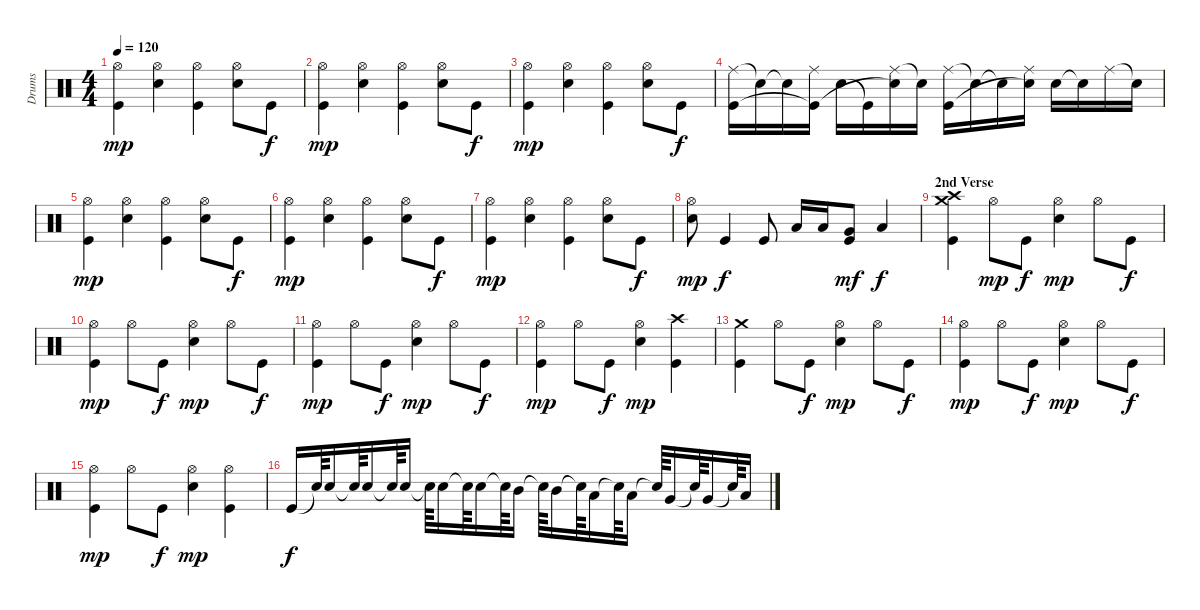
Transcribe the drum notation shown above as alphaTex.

\track ("Drums" "Drums") {instrument percussion}
\staff {score}
\articulation defaults
\ts (4 4)
\tempo 120
\clef neutral
\ks c
("Hi-Hat (open)" "Kick (hit)").4{dy mp} ("Hi-Hat (open)" "Electric Snare (hit)").4 ("Hi-Hat (open)" "Kick (hit)").4 ("Hi-Hat (open)" "Electric Snare (hit)").8 "Kick (hit)".8{dy f} |
("Hi-Hat (open)" "Kick (hit)").4{dy mp} ("Hi-Hat (open)" "Electric Snare (hit)").4 ("Hi-Hat (open)" "Kick (hit)").4 ("Hi-Hat (open)" "Electric Snare (hit)").8 "Kick (hit)".8{dy f} |
("Hi-Hat (open)" "Kick (hit)").4{dy mp} ("Hi-Hat (open)" "Electric Snare (hit)").4 ("Hi-Hat (open)" "Kick (hit)").4 ("Hi-Hat (open)" "Electric Snare (hit)").8 "Kick (hit)".8{dy f} |
("Ride (middle)" "Kick (hit)").16 "Snare (hit)"{t}.16 "Electric Snare (hit)"{t}.16 ("Ride (middle)" "Kick (hit)"{t}).16 "Electric Snare (hit)".16 "Kick (hit)"{t}.16 ("Ride (middle)" "Snare (hit)"{t}).16 "Snare (hit)"{t}.16 ("Ride (middle)" "Kick (hit)").16 "Snare (hit)"{t}.16 "Snare (hit)"{t}.16 ("Ride (middle)" "Snare (hit)"{t}).16 "Electric Snare (hit)".16 "Snare (hit)"{t}.16 "Ride (middle)".16 "Snare (hit)"{t}.16 |
("Hi-Hat (open)" "Kick (hit)").4{dy mp} ("Hi-Hat (open)" "Electric Snare (hit)").4 ("Hi-Hat (open)" "Kick (hit)").4 ("Hi-Hat (open)" "Electric Snare (hit)").8 "Kick (hit)".8{dy f} |
("Hi-Hat (open)" "Kick (hit)").4{dy mp} ("Hi-Hat (open)" "Electric Snare (hit)").4 ("Hi-Hat (open)" "Kick (hit)").4 ("Hi-Hat (open)" "Electric Snare (hit)").8 "Kick (hit)".8{dy f} |
("Hi-Hat (open)" "Kick (hit)").4{dy mp} ("Hi-Hat (open)" "Electric Snare (hit)").4 ("Hi-Hat (open)" "Kick (hit)").4 ("Hi-Hat (open)" "Electric Snare (hit)").8 "Kick (hit)".8{dy f} |
("Hi-Hat (open)" "Electric Snare (hit)").8{dy mp} "Kick (hit)".4{dy f} "Kick (hit)".8 "Low Tom (hit)".16 "Low Tom (hit)".16 ("Very Low Tom (hit)" "Kick (hit)").8{dy mf} "Low Floor Tom (hit)".4{dy f} |
\section ("" "2nd Verse")
("Crash high (hit)" "Crash medium (hit)" "Kick (hit)").4 "Hi-Hat (open)".8{dy mp} "Kick (hit)".8{dy f} ("Hi-Hat (open)" "Electric Snare (hit)").4{dy mp} "Hi-Hat (open)".8 "Kick (hit)".8{dy f} |
("Hi-Hat (open)" "Kick (hit)").4{dy mp} "Hi-Hat (open)".8 "Kick (hit)".8{dy f} ("Hi-Hat (open)" "Electric Snare (hit)").4{dy mp} "Hi-Hat (open)".8 "Kick (hit)".8{dy f} |
("Hi-Hat (open)" "Kick (hit)").4{dy mp} "Hi-Hat (open)".8 "Kick (hit)".8{dy f} ("Hi-Hat (open)" "Electric Snare (hit)").4{dy mp} "Hi-Hat (open)".8 "Kick (hit)".8{dy f} |
("Hi-Hat (open)" "Kick (hit)").4{dy mp} "Hi-Hat (open)".8 "Kick (hit)".8{dy f} ("Hi-Hat (open)" "Electric Snare (hit)").4{dy mp} ("Crash high (hit)" "Kick (hit)").4 |
("Crash medium (hit)" "Kick (hit)").4 "Hi-Hat (open)".8 "Kick (hit)".8{dy f} ("Hi-Hat (open)" "Electric Snare (hit)").4{dy mp} "Hi-Hat (open)".8 "Kick (hit)".8{dy f} |
("Hi-Hat (open)" "Kick (hit)").4{dy mp} "Hi-Hat (open)".8 "Kick (hit)".8{dy f} ("Hi-Hat (open)" "Electric Snare (hit)").4{dy mp} "Hi-Hat (open)".8 "Kick (hit)".8{dy f} |
("Hi-Hat (open)" "Kick (hit)").4{dy mp} "Hi-Hat (open)".8 "Kick (hit)".8{dy f} ("Hi-Hat (open)" "Electric Snare (hit)").4{dy mp} ("Hi-Hat (open)" "Kick (hit)").4 |
"Kick (hit)".16{dy f} "Snare (hit)"{t}.64 "Electric Snare (hit)".16 "Snare (hit)"{t}.64 "Electric Snare (hit)".16 "Snare (hit)"{t}.64 "Electric Snare (hit)".16 "Snare (hit)"{t}.64 "Electric Snare (hit)".16 "Snare (hit)"{t}.64 "Electric Snare (hit)".16 "Snare (hit)"{t}.64 "Mid Tom (hit)".16 "Snare (hit)"{t}.64 "Mid Tom (hit)".16 "Snare (hit)"{t}.64 "Low Tom (hit)".16 "Snare (hit)"{t}.64 "Low Tom (hit)".16 "Snare (hit)"{t}.64 "Very Low Tom (hit)".16 "Snare (hit)"{t}.64 "Very Low Tom (hit)".16 "Snare (hit)"{t}.64 "Low Floor Tom (hit)".16
